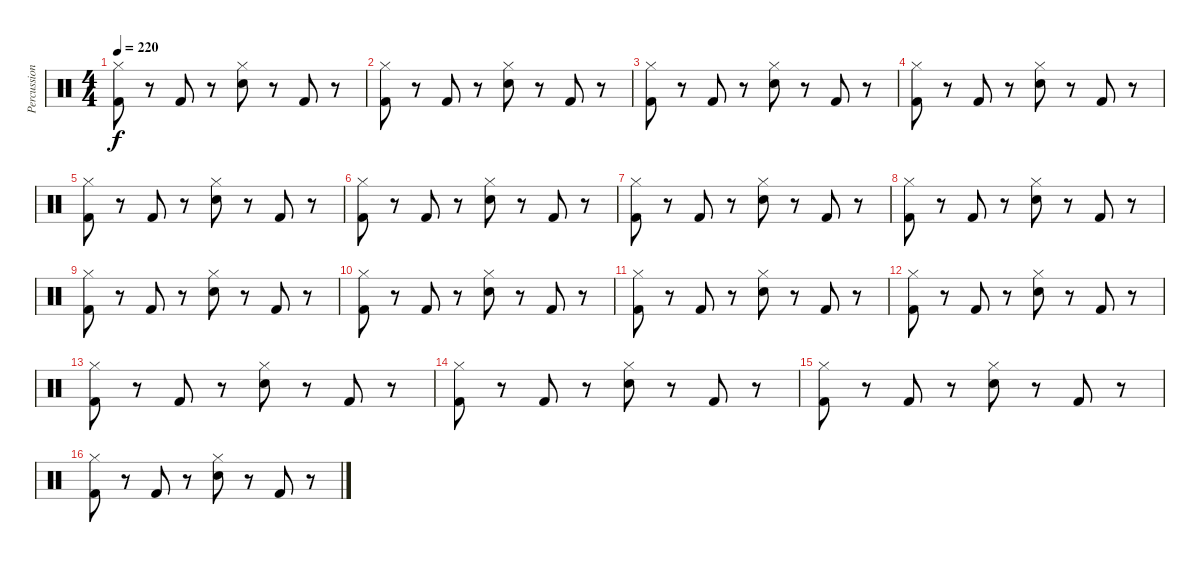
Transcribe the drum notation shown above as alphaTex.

\track ("Percussion" "Percussion") {instrument percussion}
\staff {score}
\articulation defaults
\ts (4 4)
\tempo 220
\clef neutral
\ks c
("Kick (hit) 2" "Hi-Hat (closed)").8{dy f} r.8 "Kick (hit) 2".8 r.8 ("Snare (hit) 2" "Hi-Hat (closed)").8 r.8 "Kick (hit) 2".8 r.8 |
("Kick (hit) 2" "Hi-Hat (closed)").8 r.8 "Kick (hit) 2".8 r.8 ("Snare (hit) 2" "Hi-Hat (closed)").8 r.8 "Kick (hit) 2".8 r.8 |
("Kick (hit) 2" "Hi-Hat (closed)").8 r.8 "Kick (hit) 2".8 r.8 ("Snare (hit) 2" "Hi-Hat (closed)").8 r.8 "Kick (hit) 2".8 r.8 |
("Kick (hit) 2" "Hi-Hat (closed)").8 r.8 "Kick (hit) 2".8 r.8 ("Snare (hit) 2" "Hi-Hat (closed)").8 r.8 "Kick (hit) 2".8 r.8 |
("Kick (hit) 2" "Hi-Hat (closed)").8 r.8 "Kick (hit) 2".8 r.8 ("Snare (hit) 2" "Hi-Hat (closed)").8 r.8 "Kick (hit) 2".8 r.8 |
("Kick (hit) 2" "Hi-Hat (closed)").8 r.8 "Kick (hit) 2".8 r.8 ("Snare (hit) 2" "Hi-Hat (closed)").8 r.8 "Kick (hit) 2".8 r.8 |
("Kick (hit) 2" "Hi-Hat (closed)").8 r.8 "Kick (hit) 2".8 r.8 ("Snare (hit) 2" "Hi-Hat (closed)").8 r.8 "Kick (hit) 2".8 r.8 |
("Kick (hit) 2" "Hi-Hat (closed)").8 r.8 "Kick (hit) 2".8 r.8 ("Snare (hit) 2" "Hi-Hat (closed)").8 r.8 "Kick (hit) 2".8 r.8 |
("Kick (hit) 2" "Hi-Hat (closed)").8 r.8 "Kick (hit) 2".8 r.8 ("Snare (hit) 2" "Hi-Hat (closed)").8 r.8 "Kick (hit) 2".8 r.8 |
("Kick (hit) 2" "Hi-Hat (closed)").8 r.8 "Kick (hit) 2".8 r.8 ("Snare (hit) 2" "Hi-Hat (closed)").8 r.8 "Kick (hit) 2".8 r.8 |
("Kick (hit) 2" "Hi-Hat (closed)").8 r.8 "Kick (hit) 2".8 r.8 ("Snare (hit) 2" "Hi-Hat (closed)").8 r.8 "Kick (hit) 2".8 r.8 |
("Kick (hit) 2" "Hi-Hat (closed)").8 r.8 "Kick (hit) 2".8 r.8 ("Snare (hit) 2" "Hi-Hat (closed)").8 r.8 "Kick (hit) 2".8 r.8 |
("Kick (hit) 2" "Hi-Hat (closed)").8 r.8 "Kick (hit) 2".8 r.8 ("Snare (hit) 2" "Hi-Hat (closed)").8 r.8 "Kick (hit) 2".8 r.8 |
("Kick (hit) 2" "Hi-Hat (closed)").8 r.8 "Kick (hit) 2".8 r.8 ("Snare (hit) 2" "Hi-Hat (closed)").8 r.8 "Kick (hit) 2".8 r.8 |
("Kick (hit) 2" "Hi-Hat (closed)").8 r.8 "Kick (hit) 2".8 r.8 ("Snare (hit) 2" "Hi-Hat (closed)").8 r.8 "Kick (hit) 2".8 r.8 |
("Kick (hit) 2" "Hi-Hat (closed)").8 r.8 "Kick (hit) 2".8 r.8 ("Snare (hit) 2" "Hi-Hat (closed)").8 r.8 "Kick (hit) 2".8 r.8
